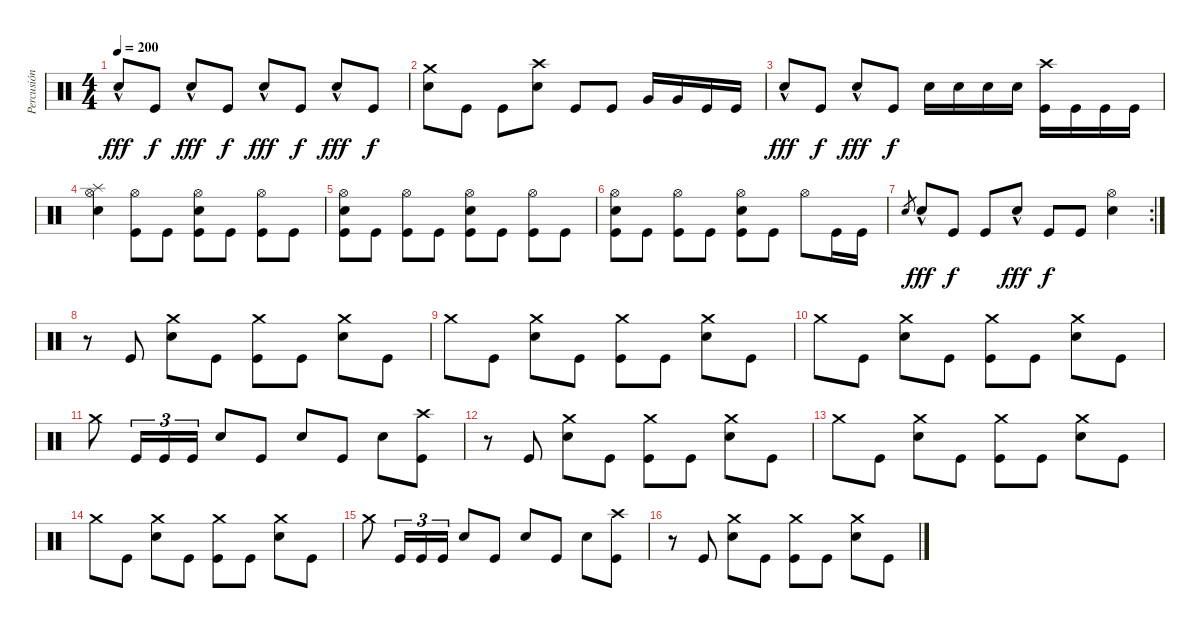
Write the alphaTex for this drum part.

\track ("Percusión" "Percusión") {instrument percussion}
\staff {score}
\articulation defaults
\ts (4 4)
\tempo 200
\clef neutral
\ks c "Electric Snare (hit)"{hac}.8{dy fff} "Kick (hit)".8{dy f} "Electric Snare (hit)"{hac}.8{dy fff} "Kick (hit)".8{dy f} "Electric Snare (hit)"{hac}.8{dy fff} "Kick (hit)".8{dy f} "Electric Snare (hit)"{hac}.8{dy fff} "Kick (hit)".8{dy f}
|
("Electric Snare (hit)" "Crash medium (hit)").8 "Kick (hit)".8 "Kick (hit)".8 ("Electric Snare (hit)" "Crash high (hit)").8 "Kick (hit)".8 "Kick (hit)".8 "Very Low Tom (hit)".16 "Very Low Tom (hit)".16 "Kick (hit)".16 "Kick (hit)".16 |
"Electric Snare (hit)"{hac}.8{dy fff} "Kick (hit)".8{dy f} "Electric Snare (hit)"{hac}.8{dy fff} "Kick (hit)".8{dy f} "Electric Snare (hit)".16 "Electric Snare (hit)".16 "Electric Snare (hit)".16 "Electric Snare (hit)".16 ("Crash high (hit)" "Kick (hit)").16 "Kick (hit)".16 "Kick (hit)".16 "Kick (hit)".16 |
("Electric Snare (hit)" "Splash (hit)" "Hi-Hat (open)").4 ("Hi-Hat (open)" "Kick (hit)").8 "Kick (hit)".8 ("Electric Snare (hit)" "Hi-Hat (open)" "Kick (hit)").8 "Kick (hit)".8 ("Hi-Hat (open)" "Kick (hit)").8 "Kick (hit)".8 |
("Electric Snare (hit)" "Hi-Hat (open)" "Kick (hit)").8 "Kick (hit)".8 ("Hi-Hat (open)" "Kick (hit)").8 "Kick (hit)".8 ("Electric Snare (hit)" "Hi-Hat (open)" "Kick (hit)").8 "Kick (hit)".8 ("Hi-Hat (open)" "Kick (hit)").8 "Kick (hit)".8 |
("Electric Snare (hit)" "Hi-Hat (open)" "Kick (hit)").8 "Kick (hit)".8 ("Hi-Hat (open)" "Kick (hit)").8 "Kick (hit)".8 ("Electric Snare (hit)" "Hi-Hat (open)" "Kick (hit)").8 "Kick (hit)".8 "Hi-Hat (open)".8 "Kick (hit)".16 "Kick (hit)".16 |
\rc 2 "Electric Snare (hit)".8{gr} "Electric Snare (hit)"{hac}.8{dy fff} "Kick (hit)".8{dy f} "Kick (hit)".8 "Electric Snare (hit)"{hac}.8{dy fff} "Kick (hit)".8{dy f} "Kick (hit)".8
("Electric Snare (hit)" "Hi-Hat (open)").4 |
r.8 "Kick (hit)".8 ("Electric Snare (hit)" "Crash medium (hit)").8 "Kick (hit)".8 ("Crash medium (hit)" "Kick (hit)").8 "Kick (hit)".8 ("Electric Snare (hit)" "Crash medium (hit)").8 "Kick (hit)".8 |
"Crash medium (hit)".8 "Kick (hit)".8 ("Electric Snare (hit)" "Crash medium (hit)").8 "Kick (hit)".8 ("Crash medium (hit)" "Kick (hit)").8 "Kick (hit)".8 ("Electric Snare (hit)" "Crash medium (hit)").8 "Kick (hit)".8 |
"Crash medium (hit)".8 "Kick (hit)".8 ("Electric Snare (hit)" "Crash medium (hit)").8 "Kick (hit)".8 ("Crash medium (hit)" "Kick (hit)").8 "Kick (hit)".8 ("Electric Snare (hit)" "Crash medium (hit)").8 "Kick (hit)".8 |
"Crash medium (hit)".8 "Kick (hit)".16{tu (3 2)} "Kick (hit)".16{tu (3 2)} "Kick (hit)".16{tu (3 2)} "Electric Snare (hit)".8 "Kick (hit)".8 "Electric Snare (hit)".8 "Kick (hit)".8 "Electric Snare (hit)".8 ("Crash high (hit)" "Kick (hit)").8 |
r.8 "Kick (hit)".8 ("Electric Snare (hit)" "Crash medium (hit)").8 "Kick (hit)".8 ("Crash medium (hit)" "Kick (hit)").8 "Kick (hit)".8 ("Electric Snare (hit)" "Crash medium (hit)").8 "Kick (hit)".8 |
"Crash medium (hit)".8 "Kick (hit)".8 ("Electric Snare (hit)" "Crash medium (hit)").8 "Kick (hit)".8 ("Crash medium (hit)" "Kick (hit)").8 "Kick (hit)".8 ("Electric Snare (hit)" "Crash medium (hit)").8 "Kick (hit)".8 |
"Crash medium (hit)".8 "Kick (hit)".8 ("Electric Snare (hit)" "Crash medium (hit)").8 "Kick (hit)".8 ("Crash medium (hit)" "Kick (hit)").8 "Kick (hit)".8 ("Electric Snare (hit)" "Crash medium (hit)").8 "Kick (hit)".8 |
"Crash medium (hit)".8 "Kick (hit)".16{tu (3 2)} "Kick (hit)".16{tu (3 2)} "Kick (hit)".16{tu (3 2)} "Electric Snare (hit)".8 "Kick (hit)".8 "Electric Snare (hit)".8 "Kick (hit)".8 "Electric Snare (hit)".8 ("Crash high (hit)" "Kick (hit)").8 |
r.8 "Kick (hit)".8 ("Electric Snare (hit)" "Crash medium (hit)").8 "Kick (hit)".8 ("Crash medium (hit)" "Kick (hit)").8 "Kick (hit)".8 ("Electric Snare (hit)" "Crash medium (hit)").8 "Kick (hit)".8
